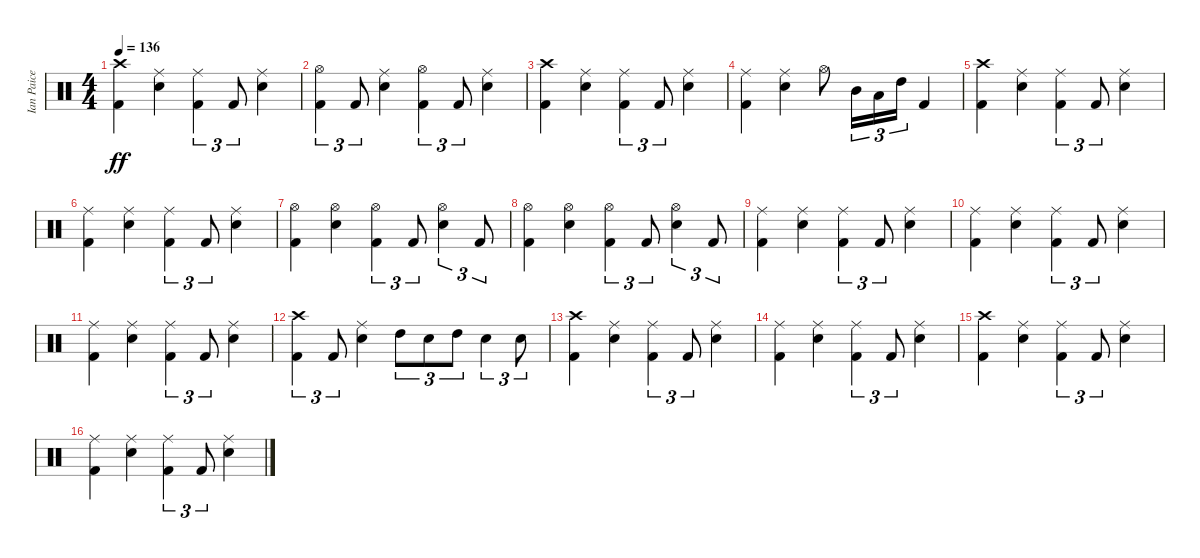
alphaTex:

\track ("Ian Paice" "Ian Paice") {instrument percussion}
\staff {score}
\articulation defaults
\ts (4 4)
\tempo 136
\clef neutral
\ks c
("Crash high (hit)" "Kick (hit) 2").4{dy ff} ("Ride (middle)" "Electric Snare (hit)").4 ("Ride (middle)" "Kick (hit) 2").4{tu (3 2)} "Kick (hit) 2".8{tu (3 2)} ("Ride (middle)" "Electric Snare (hit)").4 |
("Hi-Hat (open)" "Kick (hit) 2").4{tu (3 2)} "Kick (hit) 2".8{tu (3 2)} ("Ride (middle)" "Electric Snare (hit)").4 ("Hi-Hat (open)" "Kick (hit) 2").4{tu (3 2)} "Kick (hit) 2".8{tu (3 2)} ("Ride (middle)" "Electric Snare (hit)").4 |
("Crash high (hit)" "Kick (hit) 2").4 ("Ride (middle)" "Electric Snare (hit)").4 ("Ride (middle)" "Kick (hit) 2").4{tu (3 2)} "Kick (hit) 2".8{tu (3 2)} ("Ride (middle)" "Electric Snare (hit)").4 |
("Ride (middle)" "Kick (hit) 2").4 ("Ride (middle)" "Electric Snare (hit)").4 "Hi-Hat (open)".8 "Mid Tom (hit)".16{tu (3 2)} "Low Tom (hit)".16{tu (3 2)} "High Tom (hit)".16{tu (3 2)} "Kick (hit) 2".4 |
("Crash high (hit)" "Kick (hit) 2").4 ("Ride (middle)" "Electric Snare (hit)").4 ("Ride (middle)" "Kick (hit) 2").4{tu (3 2)} "Kick (hit) 2".8{tu (3 2)} ("Ride (middle)" "Electric Snare (hit)").4 |
("Ride (middle)" "Kick (hit) 2").4 ("Ride (middle)" "Electric Snare (hit)").4 ("Ride (middle)" "Kick (hit) 2").4{tu (3 2)} "Kick (hit) 2".8{tu (3 2)} ("Ride (middle)" "Electric Snare (hit)").4 |
("Hi-Hat (open)" "Kick (hit) 2").4 ("Hi-Hat (open)" "Electric Snare (hit)").4 ("Hi-Hat (open)" "Kick (hit) 2").4{tu (3 2)} "Kick (hit) 2".8{tu (3 2)} ("Hi-Hat (open)" "Electric Snare (hit)").4{tu (3 2)} "Kick (hit) 2".8{tu (3 2)} |
("Hi-Hat (open)" "Kick (hit) 2").4 ("Hi-Hat (open)" "Electric Snare (hit)").4 ("Hi-Hat (open)" "Kick (hit) 2").4{tu (3 2)} "Kick (hit) 2".8{tu (3 2)} ("Hi-Hat (open)" "Electric Snare (hit)").4{tu (3 2)} "Kick (hit) 2".8{tu (3 2)} |
("Ride (middle)" "Kick (hit) 2").4 ("Ride (middle)" "Electric Snare (hit)").4 ("Ride (middle)" "Kick (hit) 2").4{tu (3 2)} "Kick (hit) 2".8{tu (3 2)} ("Ride (middle)" "Electric Snare (hit)").4 |
("Ride (middle)" "Kick (hit) 2").4 ("Ride (middle)" "Electric Snare (hit)").4 ("Ride (middle)" "Kick (hit) 2").4{tu (3 2)} "Kick (hit) 2".8{tu (3 2)} ("Ride (middle)" "Electric Snare (hit)").4 |
("Ride (middle)" "Kick (hit) 2").4 ("Ride (middle)" "Electric Snare (hit)").4 ("Ride (middle)" "Kick (hit) 2").4{tu (3 2)} "Kick (hit) 2".8{tu (3 2)} ("Ride (middle)" "Electric Snare (hit)").4 |
("Crash high (hit)" "Kick (hit) 2").4{tu (3 2)} "Kick (hit) 2".8{tu (3 2)} ("Ride (middle)" "Electric Snare (hit)").4 "High Tom (hit)".8{tu (3 2)} "Electric Snare (hit)".8{tu (3 2)} "High Tom (hit)".8{tu (3 2)} "Electric Snare (hit)".4{tu (3 2)} "Electric Snare (hit)".8{tu (3 2)} |
("Crash high (hit)" "Kick (hit) 2").4 ("Ride (middle)" "Electric Snare (hit)").4 ("Ride (middle)" "Kick (hit) 2").4{tu (3 2)} "Kick (hit) 2".8{tu (3 2)} ("Ride (middle)" "Electric Snare (hit)").4 |
("Ride (middle)" "Kick (hit) 2").4 ("Ride (middle)" "Electric Snare (hit)").4 ("Ride (middle)" "Kick (hit) 2").4{tu (3 2)} "Kick (hit) 2".8{tu (3 2)} ("Ride (middle)" "Electric Snare (hit)").4 |
("Crash high (hit)" "Kick (hit) 2").4 ("Ride (middle)" "Electric Snare (hit)").4 ("Ride (middle)" "Kick (hit) 2").4{tu (3 2)} "Kick (hit) 2".8{tu (3 2)} ("Ride (middle)" "Electric Snare (hit)").4 |
("Ride (middle)" "Kick (hit) 2").4 ("Ride (middle)" "Electric Snare (hit)").4 ("Ride (middle)" "Kick (hit) 2").4{tu (3 2)} "Kick (hit) 2".8{tu (3 2)} ("Ride (middle)" "Electric Snare (hit)").4
